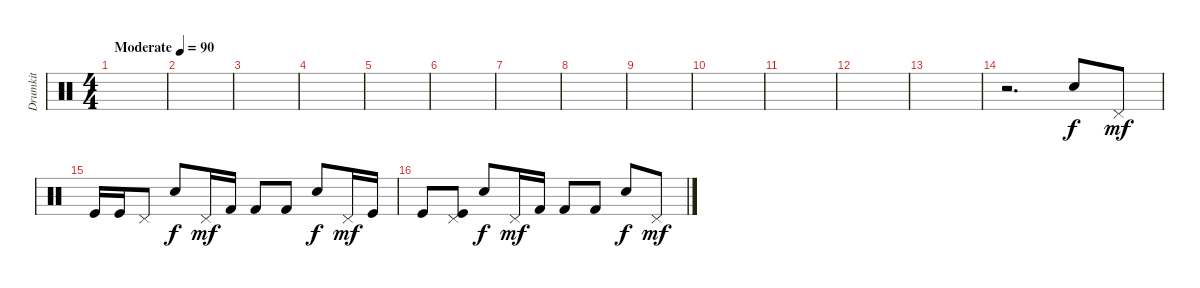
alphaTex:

\track ("Drumkit" "Drumkit") {instrument percussion}
\staff {score}
\articulation defaults
\ts (4 4)
\tempo (90 "Moderate")
\clef neutral
\ks c
|
|
|
|
|
|
|
|
|
|
|
|
|
r.2{d} "Snare (hit) 2".8 "Pedal Hi-Hat (hit)".8{dy mf} |
"Kick (hit)".16 "Kick (hit)".16 "Pedal Hi-Hat (hit)".8 "Snare (hit) 2".8{dy f} "Pedal Hi-Hat (hit)".16{dy mf} "Kick (hit) 2".16 "Kick (hit) 2".8 "Kick (hit) 2".8 "Snare (hit) 2".8{dy f} "Pedal Hi-Hat (hit)".16{dy mf} "Kick (hit)".16 |
"Kick (hit)".8 ("Pedal Hi-Hat (hit)" "Kick (hit)").8 "Snare (hit) 2".8{dy f} "Pedal Hi-Hat (hit)".16{dy mf} "Kick (hit) 2".16 "Kick (hit) 2".8 "Kick (hit) 2".8 "Snare (hit) 2".8{dy f} "Pedal Hi-Hat (hit)".8{dy mf}
